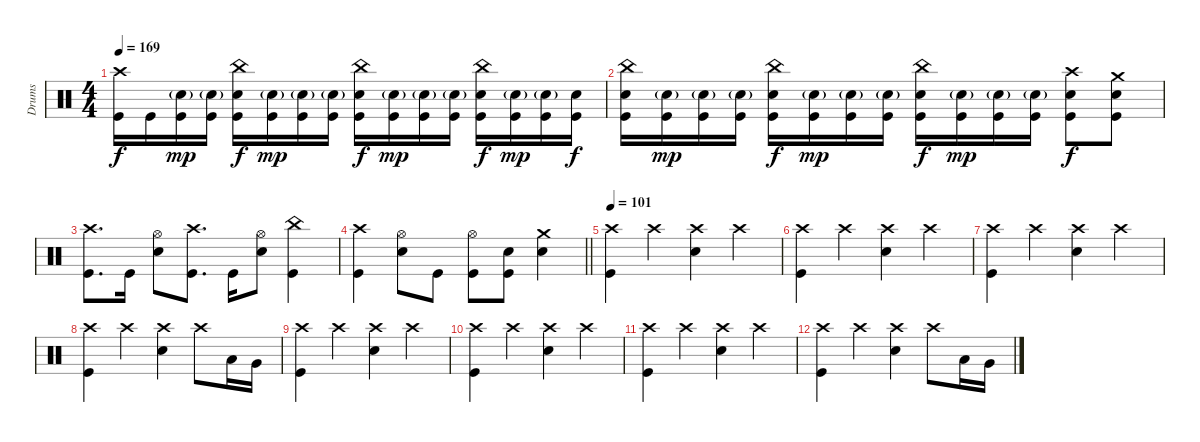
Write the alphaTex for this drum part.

\track ("Drums" "Drums") {instrument percussion}
\staff
\articulation defaults
\ts (4 4)
\tempo 169
\clef neutral
\ks c
("Crash high (hit)" "Kick (hit)").16{dy f} "Kick (hit)".16 ("Electric Snare (hit)"{g} "Kick (hit)").16{dy mp} ("Electric Snare (hit)"{g} "Kick (hit)").16 ("China (hit)" "Electric Snare (hit)" "Kick (hit)").16{dy f} ("Electric Snare (hit)"{g} "Kick (hit)").16{dy mp} ("Electric Snare (hit)"{g} "Kick (hit)").16 ("Electric Snare (hit)"{g} "Kick (hit)").16 ("China (hit)" "Electric Snare (hit)" "Kick (hit)").16{dy f} ("Electric Snare (hit)"{g} "Kick (hit)").16{dy mp} ("Electric Snare (hit)"{g} "Kick (hit)").16 ("Electric Snare (hit)"{g} "Kick (hit)").16 ("China (hit)" "Electric Snare (hit)" "Kick (hit)").16{dy f} ("Electric Snare (hit)"{g} "Kick (hit)").16{dy mp} ("Electric Snare (hit)"{g} "Kick (hit)").16 ("Electric Snare (hit)" "Kick (hit)").16{dy f} |
("China (hit)" "Electric Snare (hit)" "Kick (hit)").16 ("Electric Snare (hit)"{g} "Kick (hit)").16{dy mp} ("Electric Snare (hit)"{g} "Kick (hit)").16 ("Electric Snare (hit)"{g} "Kick (hit)").16 ("China (hit)" "Electric Snare (hit)" "Kick (hit)").16{dy f} ("Electric Snare (hit)"{g} "Kick (hit)").16{dy mp} ("Electric Snare (hit)"{g} "Kick (hit)").16 ("Electric Snare (hit)"{g} "Kick (hit)").16 ("China (hit)" "Electric Snare (hit)" "Kick (hit)").16{dy f} ("Electric Snare (hit)"{g} "Kick (hit)").16{dy mp} ("Electric Snare (hit)"{g} "Kick (hit)").16 ("Electric Snare (hit)"{g} "Kick (hit)").16 ("Crash high (hit)" "Electric Snare (hit)" "Kick (hit)").8{dy f} ("Crash medium (hit)" "Electric Snare (hit)" "Kick (hit)").8 |
("Crash high (hit)" "Kick (hit)").8{d} "Kick (hit)".16 ("Hi-Hat (open)" "Electric Snare (hit)").8 ("Crash high (hit)" "Kick (hit)").8{d} "Kick (hit)".16 ("Hi-Hat (open)" "Electric Snare (hit)").8 ("China (hit)" "Kick (hit)").4 |
\barLineRight lightlight
("Crash high (hit)" "Kick (hit)").4 ("Hi-Hat (open)" "Electric Snare (hit)").8 "Kick (hit)".8 ("Hi-Hat (open)" "Kick (hit)").8 ("Electric Snare (hit)" "Kick (hit)").8 ("Crash medium (hit)" "Electric Snare (hit)").4 |
\section ("" "")
\tempo 101
("Crash high (hit)" "Kick (hit)").4 "Crash high (hit)".4 ("Crash high (hit)" "Electric Snare (hit)").4 "Crash high (hit)".4 |
("Crash high (hit)" "Kick (hit)").4 "Crash high (hit)".4 ("Crash high (hit)" "Electric Snare (hit)").4 "Crash high (hit)".4 |
("Crash high (hit)" "Kick (hit)").4 "Crash high (hit)".4 ("Crash high (hit)" "Electric Snare (hit)").4 "Crash high (hit)".4 |
("Crash high (hit)" "Kick (hit)").4 "Crash high (hit)".4 ("Crash high (hit)" "Electric Snare (hit)").4 "Crash high (hit)".8 "Low Tom (hit)".16 "Very Low Tom (hit)".16 |
("Crash high (hit)" "Kick (hit)").4 "Crash high (hit)".4 ("Crash high (hit)" "Electric Snare (hit)").4 "Crash high (hit)".4 |
("Crash high (hit)" "Kick (hit)").4 "Crash high (hit)".4 ("Crash high (hit)" "Electric Snare (hit)").4 "Crash high (hit)".4 |
("Crash high (hit)" "Kick (hit)").4 "Crash high (hit)".4 ("Crash high (hit)" "Electric Snare (hit)").4 "Crash high (hit)".4 |
("Crash high (hit)" "Kick (hit)").4 "Crash high (hit)".4 ("Crash high (hit)" "Electric Snare (hit)").4 "Crash high (hit)".8 "Low Tom (hit)".16 "Very Low Tom (hit)".16
